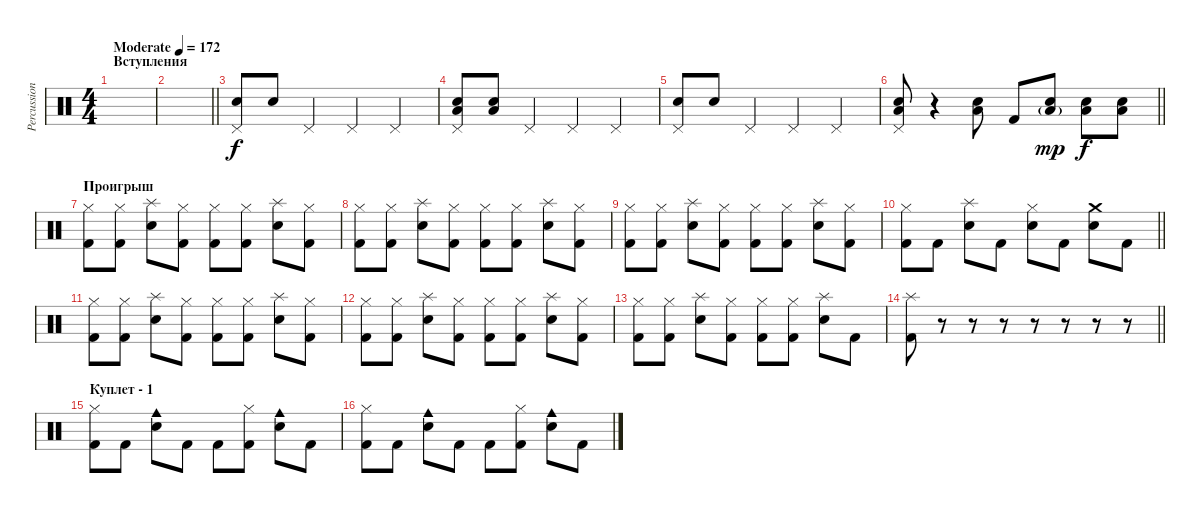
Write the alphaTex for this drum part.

\track ("Percussion" "Percussion") {instrument percussion}
\staff {score}
\articulation defaults
\ts (4 4)
\section ("" "Вступления")
\tempo (172 "Moderate")
\clef neutral
\ks c
|
\barLineRight lightlight
|
("Pedal Hi-Hat (hit)" "Snare (hit) 2").8 "Snare (hit) 2".8 "Pedal Hi-Hat (hit)".4 "Pedal Hi-Hat (hit)".4 "Pedal Hi-Hat (hit)".4 |
("Pedal Hi-Hat (hit)" "Snare (hit) 2" "Low Floor Tom (hit)").8 ("Snare (hit) 2" "Low Floor Tom (hit)").8 "Pedal Hi-Hat (hit)".4 "Pedal Hi-Hat (hit)".4 "Pedal Hi-Hat (hit)".4 |
("Pedal Hi-Hat (hit)" "Snare (hit) 2").8 "Snare (hit) 2".8 "Pedal Hi-Hat (hit)".4 "Pedal Hi-Hat (hit)".4 "Pedal Hi-Hat (hit)".4 |
\barLineRight lightlight
("Pedal Hi-Hat (hit)" "Snare (hit) 2" "Low Floor Tom (hit)").8 r.4 ("Snare (hit) 2" "Low Floor Tom (hit)").8 "Kick (hit) 2".8 ("Snare (hit) 2" "Low Floor Tom (hit)"{g}).8{dy mp} ("Snare (hit) 2" "Low Floor Tom (hit)").8{dy f} ("Snare (hit) 2" "Low Floor Tom (hit)").8 |
\section ("" "Проигрыш ")
("Hi-Hat (closed)" "Kick (hit) 2").8 ("Hi-Hat (closed)" "Kick (hit) 2").8 ("Splash (hit)" "Snare (hit) 2").8 ("Hi-Hat (closed)" "Kick (hit) 2").8 ("Hi-Hat (closed)" "Kick (hit) 2").8 ("Hi-Hat (closed)" "Kick (hit) 2").8 ("Splash (hit)" "Snare (hit) 2").8 ("Hi-Hat (closed)" "Kick (hit) 2").8 |
("Hi-Hat (closed)" "Kick (hit) 2").8 ("Hi-Hat (closed)" "Kick (hit) 2").8 ("Splash (hit)" "Snare (hit) 2").8 ("Hi-Hat (closed)" "Kick (hit) 2").8 ("Hi-Hat (closed)" "Kick (hit) 2").8 ("Hi-Hat (closed)" "Kick (hit) 2").8 ("Splash (hit)" "Snare (hit) 2").8 ("Hi-Hat (closed)" "Kick (hit) 2").8 |
("Hi-Hat (closed)" "Kick (hit) 2").8 ("Hi-Hat (closed)" "Kick (hit) 2").8 ("Splash (hit)" "Snare (hit) 2").8 ("Hi-Hat (closed)" "Kick (hit) 2").8 ("Hi-Hat (closed)" "Kick (hit) 2").8 ("Hi-Hat (closed)" "Kick (hit) 2").8 ("Splash (hit)" "Snare (hit) 2").8 ("Hi-Hat (closed)" "Kick (hit) 2").8 |
\barLineRight lightlight
("Hi-Hat (closed)" "Kick (hit) 2").8 "Kick (hit) 2".8 ("Splash (hit)" "Snare (hit) 2").8 "Kick (hit) 2".8 ("Hi-Hat (closed)" "Snare (hit) 2").8 "Kick (hit) 2".8 ("Crash medium (hit)" "Snare (hit) 2").8 "Kick (hit) 2".8 |
("Hi-Hat (closed)" "Kick (hit) 2").8 ("Hi-Hat (closed)" "Kick (hit) 2").8 ("Splash (hit)" "Snare (hit) 2").8 ("Hi-Hat (closed)" "Kick (hit) 2").8 ("Hi-Hat (closed)" "Kick (hit) 2").8 ("Hi-Hat (closed)" "Kick (hit) 2").8 ("Splash (hit)" "Snare (hit) 2").8 ("Hi-Hat (closed)" "Kick (hit) 2").8 |
("Hi-Hat (closed)" "Kick (hit) 2").8 ("Hi-Hat (closed)" "Kick (hit) 2").8 ("Splash (hit)" "Snare (hit) 2").8 ("Hi-Hat (closed)" "Kick (hit) 2").8 ("Hi-Hat (closed)" "Kick (hit) 2").8 ("Hi-Hat (closed)" "Kick (hit) 2").8 ("Splash (hit)" "Snare (hit) 2").8 ("Hi-Hat (closed)" "Kick (hit) 2").8 |
("Hi-Hat (closed)" "Kick (hit) 2").8 ("Hi-Hat (closed)" "Kick (hit) 2").8 ("Splash (hit)" "Snare (hit) 2").8 ("Hi-Hat (closed)" "Kick (hit) 2").8 ("Hi-Hat (closed)" "Kick (hit) 2").8 ("Hi-Hat (closed)" "Kick (hit) 2").8 ("Splash (hit)" "Snare (hit) 2").8 "Kick (hit) 2".8 |
\barLineRight lightlight
("Splash (hit)" "Kick (hit) 2").8 r.8 r.8 r.8 r.8 r.8 r.8 r.8 |
\section ("" "Куплет - 1")
("Hi-Hat (closed)" "Kick (hit) 2").8 "Kick (hit) 2".8 ("Cowbell medium (hit)" "Snare (hit) 2").8 "Kick (hit) 2".8 "Kick (hit) 2".8 ("Hi-Hat (closed)" "Kick (hit) 2").8 ("Cowbell medium (hit)" "Snare (hit) 2").8 "Kick (hit) 2".8 |
("Hi-Hat (closed)" "Kick (hit) 2").8 "Kick (hit) 2".8 ("Cowbell medium (hit)" "Snare (hit) 2").8 "Kick (hit) 2".8 "Kick (hit) 2".8 ("Hi-Hat (closed)" "Kick (hit) 2").8 ("Cowbell medium (hit)" "Snare (hit) 2").8 "Kick (hit) 2".8
